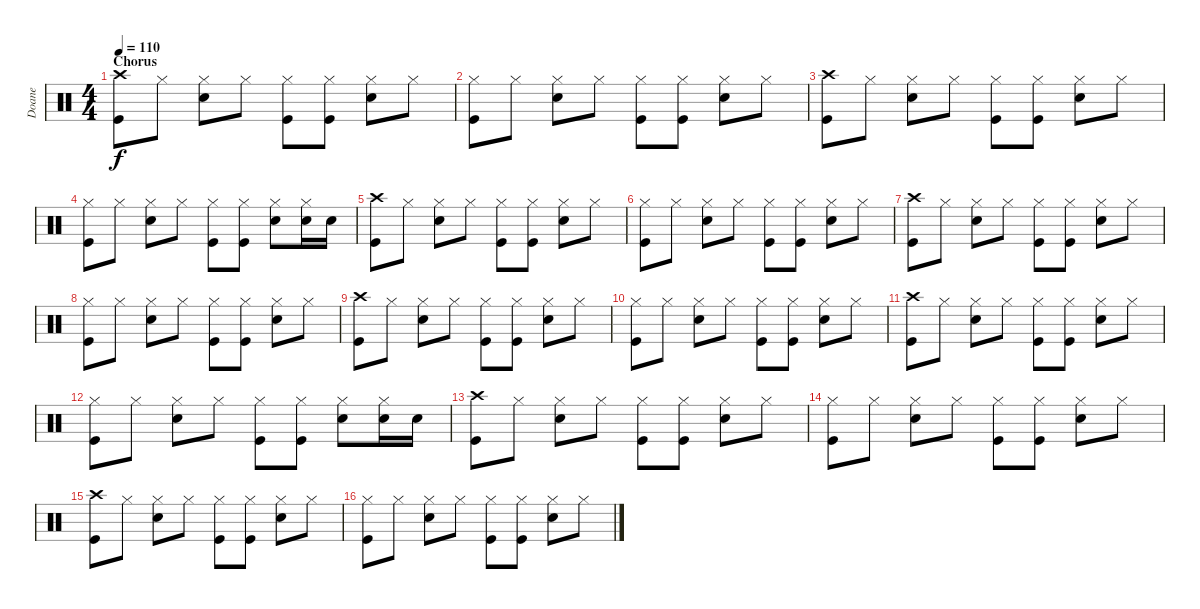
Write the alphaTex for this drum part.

\track ("Doane" "Doane") {instrument percussion}
\staff {score}
\articulation defaults
\ts (4 4)
\section ("" "Chorus")
\tempo 110
\clef neutral
\ks c
("Crash high (hit)" "Kick (hit)").8{dy f} "Hi-Hat (closed)".8 ("Hi-Hat (closed)" "Snare (hit) 2").8 "Hi-Hat (closed)".8 ("Hi-Hat (closed)" "Kick (hit)").8 ("Hi-Hat (closed)" "Kick (hit)").8 ("Hi-Hat (closed)" "Snare (hit) 2").8 "Hi-Hat (closed)".8 |
("Hi-Hat (closed)" "Kick (hit)").8 "Hi-Hat (closed)".8 ("Hi-Hat (closed)" "Snare (hit) 2").8 "Hi-Hat (closed)".8 ("Hi-Hat (closed)" "Kick (hit)").8 ("Hi-Hat (closed)" "Kick (hit)").8 ("Hi-Hat (closed)" "Snare (hit) 2").8 "Hi-Hat (closed)".8 |
("Crash high (hit)" "Kick (hit)").8 "Hi-Hat (closed)".8 ("Hi-Hat (closed)" "Snare (hit) 2").8 "Hi-Hat (closed)".8 ("Hi-Hat (closed)" "Kick (hit)").8 ("Hi-Hat (closed)" "Kick (hit)").8 ("Hi-Hat (closed)" "Snare (hit) 2").8 "Hi-Hat (closed)".8 |
("Hi-Hat (closed)" "Kick (hit)").8 "Hi-Hat (closed)".8 ("Hi-Hat (closed)" "Snare (hit) 2").8 "Hi-Hat (closed)".8 ("Hi-Hat (closed)" "Kick (hit)").8 ("Hi-Hat (closed)" "Kick (hit)").8 ("Hi-Hat (closed)" "Snare (hit) 2").8 ("Hi-Hat (closed)" "Snare (hit) 2").16 "Snare (hit) 2".16 |
("Crash high (hit)" "Kick (hit)").8 "Hi-Hat (closed)".8 ("Hi-Hat (closed)" "Snare (hit) 2").8 "Hi-Hat (closed)".8 ("Hi-Hat (closed)" "Kick (hit)").8 ("Hi-Hat (closed)" "Kick (hit)").8 ("Hi-Hat (closed)" "Snare (hit) 2").8 "Hi-Hat (closed)".8 |
("Hi-Hat (closed)" "Kick (hit)").8 "Hi-Hat (closed)".8 ("Hi-Hat (closed)" "Snare (hit) 2").8 "Hi-Hat (closed)".8 ("Hi-Hat (closed)" "Kick (hit)").8 ("Hi-Hat (closed)" "Kick (hit)").8 ("Hi-Hat (closed)" "Snare (hit) 2").8 "Hi-Hat (closed)".8 |
("Crash high (hit)" "Kick (hit)").8 "Hi-Hat (closed)".8 ("Hi-Hat (closed)" "Snare (hit) 2").8 "Hi-Hat (closed)".8 ("Hi-Hat (closed)" "Kick (hit)").8 ("Hi-Hat (closed)" "Kick (hit)").8 ("Hi-Hat (closed)" "Snare (hit) 2").8 "Hi-Hat (closed)".8 |
("Hi-Hat (closed)" "Kick (hit)").8 "Hi-Hat (closed)".8 ("Hi-Hat (closed)" "Snare (hit) 2").8 "Hi-Hat (closed)".8 ("Hi-Hat (closed)" "Kick (hit)").8 ("Hi-Hat (closed)" "Kick (hit)").8 ("Hi-Hat (closed)" "Snare (hit) 2").8 "Hi-Hat (closed)".8 |
("Crash high (hit)" "Kick (hit)").8 "Hi-Hat (closed)".8 ("Hi-Hat (closed)" "Snare (hit) 2").8 "Hi-Hat (closed)".8 ("Hi-Hat (closed)" "Kick (hit)").8 ("Hi-Hat (closed)" "Kick (hit)").8 ("Hi-Hat (closed)" "Snare (hit) 2").8 "Hi-Hat (closed)".8 |
("Hi-Hat (closed)" "Kick (hit)").8 "Hi-Hat (closed)".8 ("Hi-Hat (closed)" "Snare (hit) 2").8 "Hi-Hat (closed)".8 ("Hi-Hat (closed)" "Kick (hit)").8 ("Hi-Hat (closed)" "Kick (hit)").8 ("Hi-Hat (closed)" "Snare (hit) 2").8 "Hi-Hat (closed)".8 |
("Crash high (hit)" "Kick (hit)").8 "Hi-Hat (closed)".8 ("Hi-Hat (closed)" "Snare (hit) 2").8 "Hi-Hat (closed)".8 ("Hi-Hat (closed)" "Kick (hit)").8 ("Hi-Hat (closed)" "Kick (hit)").8 ("Hi-Hat (closed)" "Snare (hit) 2").8 "Hi-Hat (closed)".8 |
("Hi-Hat (closed)" "Kick (hit)").8 "Hi-Hat (closed)".8 ("Hi-Hat (closed)" "Snare (hit) 2").8 "Hi-Hat (closed)".8 ("Hi-Hat (closed)" "Kick (hit)").8 ("Hi-Hat (closed)" "Kick (hit)").8 ("Hi-Hat (closed)" "Snare (hit) 2").8 ("Hi-Hat (closed)" "Snare (hit) 2").16 "Snare (hit) 2".16 |
("Crash high (hit)" "Kick (hit)").8 "Hi-Hat (closed)".8 ("Hi-Hat (closed)" "Snare (hit) 2").8 "Hi-Hat (closed)".8 ("Hi-Hat (closed)" "Kick (hit)").8 ("Hi-Hat (closed)" "Kick (hit)").8 ("Hi-Hat (closed)" "Snare (hit) 2").8 "Hi-Hat (closed)".8 |
("Hi-Hat (closed)" "Kick (hit)").8 "Hi-Hat (closed)".8 ("Hi-Hat (closed)" "Snare (hit) 2").8 "Hi-Hat (closed)".8 ("Hi-Hat (closed)" "Kick (hit)").8 ("Hi-Hat (closed)" "Kick (hit)").8 ("Hi-Hat (closed)" "Snare (hit) 2").8 "Hi-Hat (closed)".8 |
("Crash high (hit)" "Kick (hit)").8 "Hi-Hat (closed)".8 ("Hi-Hat (closed)" "Snare (hit) 2").8 "Hi-Hat (closed)".8 ("Hi-Hat (closed)" "Kick (hit)").8 ("Hi-Hat (closed)" "Kick (hit)").8 ("Hi-Hat (closed)" "Snare (hit) 2").8 "Hi-Hat (closed)".8 |
("Hi-Hat (closed)" "Kick (hit)").8 "Hi-Hat (closed)".8 ("Hi-Hat (closed)" "Snare (hit) 2").8 "Hi-Hat (closed)".8 ("Hi-Hat (closed)" "Kick (hit)").8 ("Hi-Hat (closed)" "Kick (hit)").8 ("Hi-Hat (closed)" "Snare (hit) 2").8 "Hi-Hat (closed)".8
